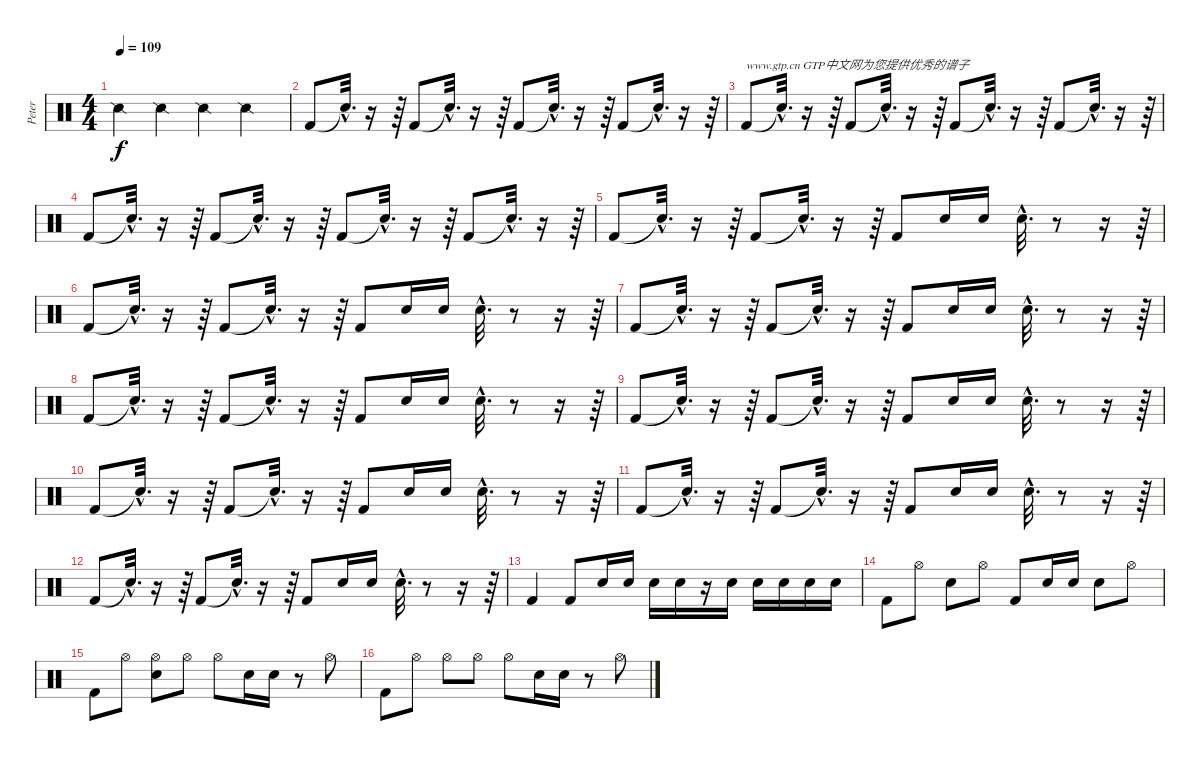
\track ("Peter" "Peter") {instrument percussion}
\staff {score}
\articulation defaults
\ts (4 4)
\tempo 109
\clef neutral
\ks c "Snare (side stick) 2".4{dy f} "Snare (side stick) 2".4 "Snare (side stick) 2".4 "Snare (side stick) 2".4
|
"Kick (hit) 2".8 "Snare (hit)"{hac t}.32{d} r.16 r.64 "Kick (hit) 2".8 "Snare (hit)"{hac t}.32{d} r.16 r.64 "Kick (hit) 2".8 "Snare (hit)"{hac t}.32{d} r.16 r.64 "Kick (hit) 2".8 "Snare (hit)"{hac t}.32{d} r.16 r.64 |
"Kick (hit) 2".8{txt "www.gtp.cn GTP中文网为您提供优秀的谱子"} "Snare (hit)"{hac t}.32{d} r.16 r.64 "Kick (hit) 2".8 "Snare (hit)"{hac t}.32{d} r.16 r.64 "Kick (hit) 2".8 "Snare (hit)"{hac t}.32{d} r.16 r.64 "Kick (hit) 2".8 "Snare (hit)"{hac t}.32{d} r.16 r.64 |
"Kick (hit) 2".8 "Snare (hit)"{hac t}.32{d} r.16 r.64 "Kick (hit) 2".8 "Snare (hit)"{hac t}.32{d} r.16 r.64 "Kick (hit) 2".8 "Snare (hit)"{hac t}.32{d} r.16 r.64 "Kick (hit) 2".8 "Snare (hit)"{hac t}.32{d} r.16 r.64 |
"Kick (hit) 2".8 "Snare (hit)"{hac t}.32{d} r.16 r.64 "Kick (hit) 2".8 "Snare (hit)"{hac t}.32{d} r.16 r.64 "Kick (hit) 2".8 "Electric Snare (hit)".16 "Electric Snare (hit)".16 "Electric Snare (hit)"{hac}.32{d} r.8 r.16 r.64 |
"Kick (hit) 2".8 "Snare (hit)"{hac t}.32{d} r.16 r.64 "Kick (hit) 2".8 "Snare (hit)"{hac t}.32{d} r.16 r.64 "Kick (hit) 2".8 "Electric Snare (hit)".16 "Electric Snare (hit)".16 "Electric Snare (hit)"{hac}.32{d} r.8 r.16 r.64 |
"Kick (hit) 2".8 "Snare (hit)"{hac t}.32{d} r.16 r.64 "Kick (hit) 2".8 "Snare (hit)"{hac t}.32{d} r.16 r.64 "Kick (hit) 2".8 "Electric Snare (hit)".16 "Electric Snare (hit)".16 "Electric Snare (hit)"{hac}.32{d} r.8 r.16 r.64 |
"Kick (hit) 2".8 "Snare (hit)"{hac t}.32{d} r.16 r.64 "Kick (hit) 2".8 "Snare (hit)"{hac t}.32{d} r.16 r.64 "Kick (hit) 2".8 "Electric Snare (hit)".16 "Electric Snare (hit)".16 "Electric Snare (hit)"{hac}.32{d} r.8 r.16 r.64 |
"Kick (hit) 2".8 "Snare (hit)"{hac t}.32{d} r.16 r.64 "Kick (hit) 2".8 "Snare (hit)"{hac t}.32{d} r.16 r.64 "Kick (hit) 2".8 "Electric Snare (hit)".16 "Electric Snare (hit)".16 "Electric Snare (hit)"{hac}.32{d} r.8 r.16 r.64 |
"Kick (hit) 2".8 "Snare (hit)"{hac t}.32{d} r.16 r.64 "Kick (hit) 2".8 "Snare (hit)"{hac t}.32{d} r.16 r.64 "Kick (hit) 2".8 "Electric Snare (hit)".16 "Electric Snare (hit)".16 "Electric Snare (hit)"{hac}.32{d} r.8 r.16 r.64 |
"Kick (hit) 2".8 "Snare (hit)"{hac t}.32{d} r.16 r.64 "Kick (hit) 2".8 "Snare (hit)"{hac t}.32{d} r.16 r.64 "Kick (hit) 2".8 "Electric Snare (hit)".16 "Electric Snare (hit)".16 "Electric Snare (hit)"{hac}.32{d} r.8 r.16 r.64 |
"Kick (hit) 2".8 "Snare (hit)"{hac t}.32{d} r.16 r.64 "Kick (hit) 2".8 "Snare (hit)"{hac t}.32{d} r.16 r.64 "Kick (hit) 2".8 "Electric Snare (hit)".16 "Electric Snare (hit)".16 "Electric Snare (hit)"{hac}.32{d} r.8 r.16 r.64 |
"Kick (hit) 2".4 "Kick (hit) 2".8 "Electric Snare (hit)".16 "Electric Snare (hit)".16 "Electric Snare (hit)".16 "Electric Snare (hit)".16 r.16 "Electric Snare (hit)".16 "Electric Snare (hit)".16 "Electric Snare (hit)".16 "Electric Snare (hit)".16 "Electric Snare (hit)".16 |
"Kick (hit) 2".8 "Hi-Hat (open)".8 "Electric Snare (hit)".8 "Hi-Hat (open)".8 "Kick (hit) 2".8 "Electric Snare (hit)".16 "Electric Snare (hit)".16 "Electric Snare (hit)".8 "Hi-Hat (open)".8 |
"Kick (hit) 2".8 "Hi-Hat (open)".8 ("Electric Snare (hit)" "Hi-Hat (open)").8 "Hi-Hat (open)".8 "Hi-Hat (open)".8 "Electric Snare (hit)".16 "Electric Snare (hit)".16 r.8 "Hi-Hat (open)".8 |
"Kick (hit) 2".8 "Hi-Hat (open)".8 "Hi-Hat (open)".8 "Hi-Hat (open)".8 "Hi-Hat (open)".8 "Electric Snare (hit)".16 "Electric Snare (hit)".16 r.8 "Hi-Hat (open)".8
